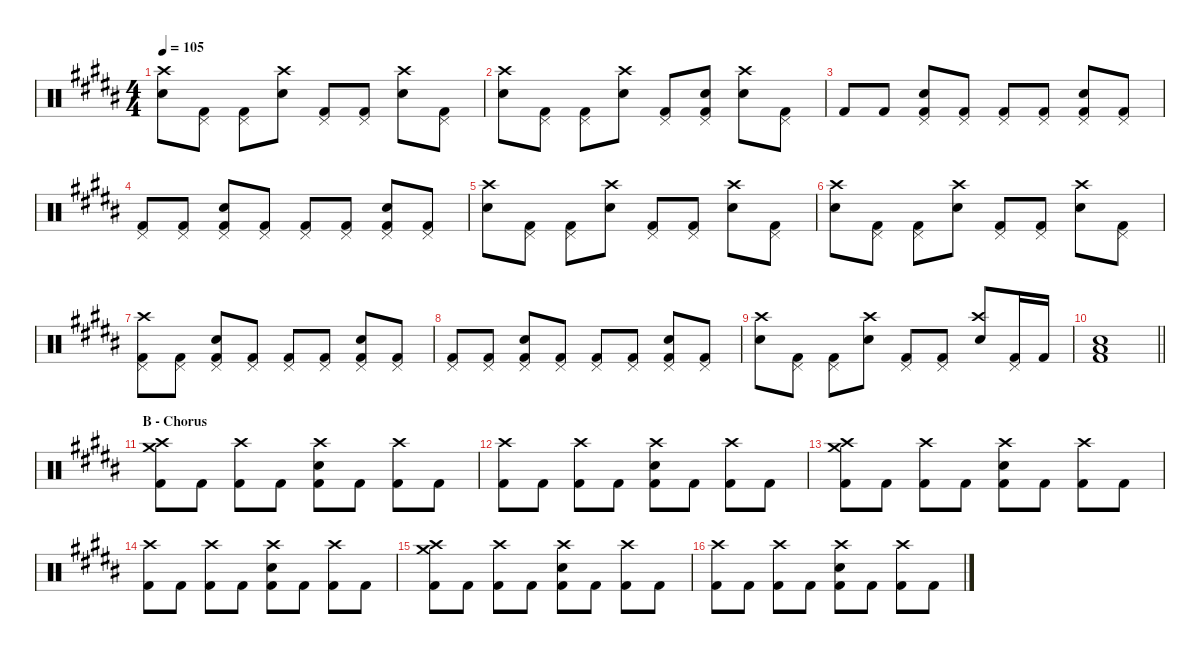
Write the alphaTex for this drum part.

\defaultSystemsLayout 4
\hideDynamics
\bracketExtendMode nobrackets
\singleTrackTrackNamePolicy hidden
\multiTrackTrackNamePolicy hidden
\firstSystemTrackNameMode fullname
\firstSystemTrackNameOrientation horizontal
\otherSystemsTrackNameOrientation horizontal
\track ("Percussions" "drm.") {instrument percussion}
\staff {score}
\articulation defaults
\ts (4 4)
\tempo 105
\clef neutral
\ks b
("Crash high (hit)"{acc bb} "Snare (hit) 2"{acc bb}).8{dy f beam Down} ("Pedal Hi-Hat (hit)"{acc bb} "Kick (hit) 2"{acc bb}).8{beam Down} ("Pedal Hi-Hat (hit)"{acc bb} "Kick (hit) 2"{acc bb}).8{beam Down} ("Crash high (hit)"{acc bb} "Snare (hit) 2"{acc bb}).8{beam Down} ("Pedal Hi-Hat (hit)"{acc bb} "Kick (hit) 2"{acc bb}).8{beam Up} ("Pedal Hi-Hat (hit)"{acc bb} "Kick (hit) 2"{acc bb}).8{beam Up} ("Crash high (hit)"{acc bb} "Snare (hit) 2"{acc bb}).8{beam Down} ("Pedal Hi-Hat (hit)"{acc bb} "Kick (hit) 2"{acc bb}).8{beam Down} |
("Crash high (hit)"{acc bb} "Snare (hit) 2"{acc bb}).8{beam Down} ("Pedal Hi-Hat (hit)"{acc bb} "Kick (hit) 2"{acc bb}).8{beam Down} ("Pedal Hi-Hat (hit)"{acc bb} "Kick (hit) 2"{acc bb}).8{beam Down} ("Crash high (hit)"{acc bb} "Snare (hit) 2"{acc bb}).8{beam Down} ("Pedal Hi-Hat (hit)"{acc bb} "Kick (hit) 2"{acc bb}).8{beam Up} ("Pedal Hi-Hat (hit)"{acc bb} "Snare (hit) 2"{acc bb} "Kick (hit) 2"{acc bb}).8{beam Up} ("Crash high (hit)"{acc bb} "Snare (hit) 2"{acc bb}).8{beam Down} ("Pedal Hi-Hat (hit)"{acc bb} "Kick (hit) 2"{acc bb}).8{beam Down} |
"Kick (hit) 2"{acc bb}.8{beam Up} "Kick (hit) 2"{acc bb}.8{beam Up} ("Pedal Hi-Hat (hit)"{acc bb} "Snare (hit) 2"{acc bb} "Kick (hit) 2"{acc bb}).8{beam Up} ("Pedal Hi-Hat (hit)"{acc bb} "Kick (hit) 2"{acc bb}).8{beam Up} ("Pedal Hi-Hat (hit)"{acc bb} "Kick (hit) 2"{acc bb}).8{beam Up} ("Pedal Hi-Hat (hit)"{acc bb} "Kick (hit) 2"{acc bb}).8{beam Up} ("Pedal Hi-Hat (hit)"{acc bb} "Snare (hit) 2"{acc bb} "Kick (hit) 2"{acc bb}).8{beam Up} ("Pedal Hi-Hat (hit)"{acc bb} "Kick (hit) 2"{acc bb}).8{beam Up} |
("Pedal Hi-Hat (hit)"{acc bb} "Kick (hit) 2"{acc bb}).8{beam Up} ("Pedal Hi-Hat (hit)"{acc bb} "Kick (hit) 2"{acc bb}).8{beam Up} ("Pedal Hi-Hat (hit)"{acc bb} "Snare (hit) 2"{acc bb} "Kick (hit) 2"{acc bb}).8{beam Up} ("Pedal Hi-Hat (hit)"{acc bb} "Kick (hit) 2"{acc bb}).8{beam Up} ("Pedal Hi-Hat (hit)"{acc bb} "Kick (hit) 2"{acc bb}).8{beam Up} ("Pedal Hi-Hat (hit)"{acc bb} "Kick (hit) 2"{acc bb}).8{beam Up} ("Pedal Hi-Hat (hit)"{acc bb} "Snare (hit) 2"{acc bb} "Kick (hit) 2"{acc bb}).8{beam Up} ("Pedal Hi-Hat (hit)"{acc bb} "Kick (hit) 2"{acc bb}).8{beam Up} |
("Crash high (hit)"{acc bb} "Snare (hit) 2"{acc bb}).8{beam Down} ("Pedal Hi-Hat (hit)"{acc bb} "Kick (hit) 2"{acc bb}).8{beam Down} ("Pedal Hi-Hat (hit)"{acc bb} "Kick (hit) 2"{acc bb}).8{beam Down} ("Crash high (hit)"{acc bb} "Snare (hit) 2"{acc bb}).8{beam Down} ("Pedal Hi-Hat (hit)"{acc bb} "Kick (hit) 2"{acc bb}).8{beam Up} ("Pedal Hi-Hat (hit)"{acc bb} "Kick (hit) 2"{acc bb}).8{beam Up} ("Crash high (hit)"{acc bb} "Snare (hit) 2"{acc bb}).8{beam Down} ("Pedal Hi-Hat (hit)"{acc bb} "Kick (hit) 2"{acc bb}).8{beam Down} |
("Crash high (hit)"{acc bb} "Snare (hit) 2"{acc bb}).8{beam Down} ("Pedal Hi-Hat (hit)"{acc bb} "Kick (hit) 2"{acc bb}).8{beam Down} ("Pedal Hi-Hat (hit)"{acc bb} "Kick (hit) 2"{acc bb}).8{beam Down} ("Crash high (hit)"{acc bb} "Snare (hit) 2"{acc bb}).8{beam Down} ("Pedal Hi-Hat (hit)"{acc bb} "Kick (hit) 2"{acc bb}).8{beam Up} ("Pedal Hi-Hat (hit)"{acc bb} "Kick (hit) 2"{acc bb}).8{beam Up} ("Crash high (hit)"{acc bb} "Snare (hit) 2"{acc bb}).8{beam Down} ("Pedal Hi-Hat (hit)"{acc bb} "Kick (hit) 2"{acc bb}).8{beam Down} |
("Crash high (hit)"{acc bb} "Pedal Hi-Hat (hit)"{acc bb} "Kick (hit) 2"{acc bb}).8{beam Down} ("Pedal Hi-Hat (hit)"{acc bb} "Kick (hit) 2"{acc bb}).8{beam Down} ("Pedal Hi-Hat (hit)"{acc bb} "Snare (hit) 2"{acc bb} "Kick (hit) 2"{acc bb}).8{beam Up} ("Pedal Hi-Hat (hit)"{acc bb} "Kick (hit) 2"{acc bb}).8{beam Up} ("Pedal Hi-Hat (hit)"{acc bb} "Kick (hit) 2"{acc bb}).8{beam Up} ("Pedal Hi-Hat (hit)"{acc bb} "Kick (hit) 2"{acc bb}).8{beam Up} ("Pedal Hi-Hat (hit)"{acc bb} "Snare (hit) 2"{acc bb} "Kick (hit) 2"{acc bb}).8{beam Up} ("Pedal Hi-Hat (hit)"{acc bb} "Kick (hit) 2"{acc bb}).8{beam Up} |
("Pedal Hi-Hat (hit)"{acc bb} "Kick (hit) 2"{acc bb}).8{beam Up} ("Pedal Hi-Hat (hit)"{acc bb} "Kick (hit) 2"{acc bb}).8{beam Up} ("Pedal Hi-Hat (hit)"{acc bb} "Snare (hit) 2"{acc bb} "Kick (hit) 2"{acc bb}).8{beam Up} ("Pedal Hi-Hat (hit)"{acc bb} "Kick (hit) 2"{acc bb}).8{beam Up} ("Pedal Hi-Hat (hit)"{acc bb} "Kick (hit) 2"{acc bb}).8{beam Up} ("Pedal Hi-Hat (hit)"{acc bb} "Kick (hit) 2"{acc bb}).8{beam Up} ("Pedal Hi-Hat (hit)"{acc bb} "Snare (hit) 2"{acc bb} "Kick (hit) 2"{acc bb}).8{beam Up} ("Pedal Hi-Hat (hit)"{acc bb} "Kick (hit) 2"{acc bb}).8{beam Up} |
("Crash high (hit)"{acc bb} "Snare (hit) 2"{acc bb}).8{beam Down} ("Pedal Hi-Hat (hit)"{acc bb} "Kick (hit) 2"{acc bb}).8{beam Down} ("Pedal Hi-Hat (hit)"{acc bb} "Kick (hit) 2"{acc bb}).8{beam Down} ("Crash high (hit)"{acc bb} "Snare (hit) 2"{acc bb}).8{beam Down} ("Pedal Hi-Hat (hit)"{acc bb} "Kick (hit) 2"{acc bb}).8{beam Up} ("Pedal Hi-Hat (hit)"{acc bb} "Kick (hit) 2"{acc bb}).8{beam Up} ("Crash high (hit)"{acc bb} "Snare (hit) 2"{acc bb}).8{beam Up} ("Pedal Hi-Hat (hit)"{acc bb} "Kick (hit) 2"{acc bb}).16{beam Up} "Kick (hit) 2"{acc bb}.16{beam Up} |
\barLineRight lightlight
("Low Tom (hit)"{acc bb} "Snare (hit) 2"{acc bb} "Kick (hit) 2"{acc bb}).1{dy fff beam Up} |
\section ("" "B - Chorus")
("Crash medium (hit)"{acc bb} "Crash high (hit)"{acc bb} "Kick (hit) 2"{acc bb}).8{dy f beam Down} "Kick (hit) 2"{acc bb}.8{beam Down} ("Crash high (hit)"{acc bb} "Kick (hit) 2"{acc bb}).8{beam Down} "Kick (hit) 2"{acc bb}.8{beam Down} ("Crash high (hit)"{acc bb} "Snare (hit) 2"{acc bb} "Kick (hit) 2"{acc bb}).8{beam Down} "Kick (hit) 2"{acc bb}.8{beam Down} ("Crash high (hit)"{acc bb} "Kick (hit) 2"{acc bb}).8{beam Down} "Kick (hit) 2"{acc bb}.8{beam Down} |
("Crash high (hit)"{acc bb} "Kick (hit) 2"{acc bb}).8{beam Down} "Kick (hit) 2"{acc bb}.8{beam Down} ("Crash high (hit)"{acc bb} "Kick (hit) 2"{acc bb}).8{beam Down} "Kick (hit) 2"{acc bb}.8{beam Down} ("Crash high (hit)"{acc bb} "Snare (hit) 2"{acc bb} "Kick (hit) 2"{acc bb}).8{beam Down} "Kick (hit) 2"{acc bb}.8{beam Down} ("Crash high (hit)"{acc bb} "Kick (hit) 2"{acc bb}).8{beam Down} "Kick (hit) 2"{acc bb}.8{beam Down} |
("Crash medium (hit)"{acc bb} "Crash high (hit)"{acc bb} "Kick (hit) 2"{acc bb}).8{beam Down} "Kick (hit) 2"{acc bb}.8{beam Down} ("Crash high (hit)"{acc bb} "Kick (hit) 2"{acc bb}).8{beam Down} "Kick (hit) 2"{acc bb}.8{beam Down} ("Crash high (hit)"{acc bb} "Snare (hit) 2"{acc bb} "Kick (hit) 2"{acc bb}).8{beam Down} "Kick (hit) 2"{acc bb}.8{beam Down} ("Crash high (hit)"{acc bb} "Kick (hit) 2"{acc bb}).8{beam Down} "Kick (hit) 2"{acc bb}.8{beam Down} |
("Crash high (hit)"{acc bb} "Kick (hit) 2"{acc bb}).8{beam Down} "Kick (hit) 2"{acc bb}.8{beam Down} ("Crash high (hit)"{acc bb} "Kick (hit) 2"{acc bb}).8{beam Down} "Kick (hit) 2"{acc bb}.8{beam Down} ("Crash high (hit)"{acc bb} "Snare (hit) 2"{acc bb} "Kick (hit) 2"{acc bb}).8{beam Down} "Kick (hit) 2"{acc bb}.8{beam Down} ("Crash high (hit)"{acc bb} "Kick (hit) 2"{acc bb}).8{beam Down} "Kick (hit) 2"{acc bb}.8{beam Down} |
("Crash medium (hit)"{acc bb} "Crash high (hit)"{acc bb} "Kick (hit) 2"{acc bb}).8{beam Down} "Kick (hit) 2"{acc bb}.8{beam Down} ("Crash high (hit)"{acc bb} "Kick (hit) 2"{acc bb}).8{beam Down} "Kick (hit) 2"{acc bb}.8{beam Down} ("Crash high (hit)"{acc bb} "Snare (hit) 2"{acc bb} "Kick (hit) 2"{acc bb}).8{beam Down} "Kick (hit) 2"{acc bb}.8{beam Down} ("Crash high (hit)"{acc bb} "Kick (hit) 2"{acc bb}).8{beam Down} "Kick (hit) 2"{acc bb}.8{beam Down} |
("Crash high (hit)"{acc bb} "Kick (hit) 2"{acc bb}).8{beam Down} "Kick (hit) 2"{acc bb}.8{beam Down} ("Crash high (hit)"{acc bb} "Kick (hit) 2"{acc bb}).8{beam Down} "Kick (hit) 2"{acc bb}.8{beam Down} ("Crash high (hit)"{acc bb} "Snare (hit) 2"{acc bb} "Kick (hit) 2"{acc bb}).8{beam Down} "Kick (hit) 2"{acc bb}.8{beam Down} ("Crash high (hit)"{acc bb} "Kick (hit) 2"{acc bb}).8{beam Down} "Kick (hit) 2"{acc bb}.8{beam Down}
